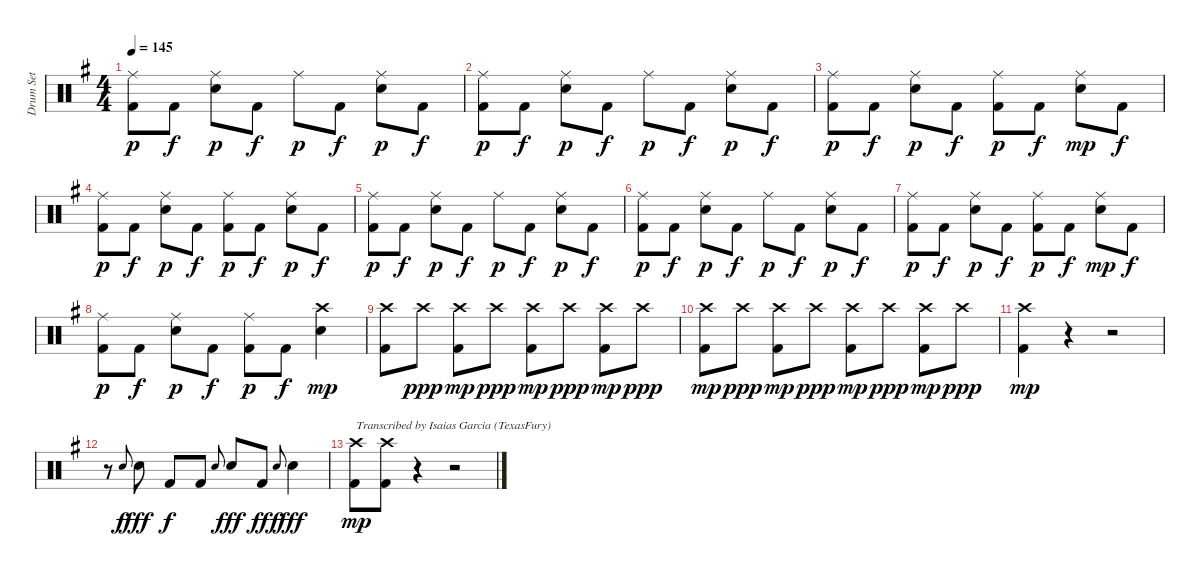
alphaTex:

\track ("Drum Set" "Drum Set") {instrument percussion}
\staff {score}
\articulation defaults
\ts (4 4)
\tempo 145
\clef neutral
\ks g
("Kick (hit) 2" "Ride (middle)").8{dy p} "Kick (hit) 2".8{dy f} ("Electric Snare (hit)" "Ride (middle)").8{dy p} "Kick (hit) 2".8{dy f} "Ride (middle)".8{dy p} "Kick (hit) 2".8{dy f} ("Electric Snare (hit)" "Ride (middle)").8{dy p} "Kick (hit) 2".8{dy f} |
("Kick (hit) 2" "Ride (middle)").8{dy p} "Kick (hit) 2".8{dy f} ("Electric Snare (hit)" "Ride (middle)").8{dy p} "Kick (hit) 2".8{dy f} "Ride (middle)".8{dy p} "Kick (hit) 2".8{dy f} ("Electric Snare (hit)" "Ride (middle)").8{dy p} "Kick (hit) 2".8{dy f} |
("Kick (hit) 2" "Ride (middle)").8{dy p} "Kick (hit) 2".8{dy f} ("Electric Snare (hit)" "Ride (middle)").8{dy p} "Kick (hit) 2".8{dy f} ("Kick (hit) 2" "Ride (middle)").8{dy p} "Kick (hit) 2".8{dy f} ("Electric Snare (hit)" "Ride (middle)").8{dy mp} "Kick (hit) 2".8{dy f} |
("Kick (hit) 2" "Ride (middle)").8{dy p} "Kick (hit) 2".8{dy f} ("Electric Snare (hit)" "Ride (middle)").8{dy p} "Kick (hit) 2".8{dy f} ("Kick (hit) 2" "Ride (middle)").8{dy p} "Kick (hit) 2".8{dy f} ("Electric Snare (hit)" "Ride (middle)").8{dy p} "Kick (hit) 2".8{dy f} |
("Kick (hit) 2" "Ride (middle)").8{dy p} "Kick (hit) 2".8{dy f} ("Electric Snare (hit)" "Ride (middle)").8{dy p} "Kick (hit) 2".8{dy f} "Ride (middle)".8{dy p} "Kick (hit) 2".8{dy f} ("Electric Snare (hit)" "Ride (middle)").8{dy p} "Kick (hit) 2".8{dy f} |
("Kick (hit) 2" "Ride (middle)").8{dy p} "Kick (hit) 2".8{dy f} ("Electric Snare (hit)" "Ride (middle)").8{dy p} "Kick (hit) 2".8{dy f} "Ride (middle)".8{dy p} "Kick (hit) 2".8{dy f} ("Electric Snare (hit)" "Ride (middle)").8{dy p} "Kick (hit) 2".8{dy f} |
("Kick (hit) 2" "Ride (middle)").8{dy p} "Kick (hit) 2".8{dy f} ("Electric Snare (hit)" "Ride (middle)").8{dy p} "Kick (hit) 2".8{dy f} ("Kick (hit) 2" "Ride (middle)").8{dy p} "Kick (hit) 2".8{dy f} ("Electric Snare (hit)" "Ride (middle)").8{dy mp} "Kick (hit) 2".8{dy f} |
("Kick (hit) 2" "Ride (middle)").8{dy p} "Kick (hit) 2".8{dy f} ("Electric Snare (hit)" "Ride (middle)").8{dy p} "Kick (hit) 2".8{dy f} ("Kick (hit) 2" "Ride (middle)").8{dy p} "Kick (hit) 2".8{dy f} ("Electric Snare (hit)" "Crash high (hit)").4{dy mp} |
("Kick (hit) 2" "Crash high (hit)").8 "Crash high (hit)".8{dy ppp} ("Kick (hit) 2" "Crash high (hit)").8{dy mp} "Crash high (hit)".8{dy ppp} ("Kick (hit) 2" "Crash high (hit)").8{dy mp} "Crash high (hit)".8{dy ppp} ("Kick (hit) 2" "Crash high (hit)").8{dy mp} "Crash high (hit)".8{dy ppp} |
("Kick (hit) 2" "Crash high (hit)").8{dy mp} "Crash high (hit)".8{dy ppp} ("Kick (hit) 2" "Crash high (hit)").8{dy mp} "Crash high (hit)".8{dy ppp} ("Kick (hit) 2" "Crash high (hit)").8{dy mp} "Crash high (hit)".8{dy ppp} ("Kick (hit) 2" "Crash high (hit)").8{dy mp} "Crash high (hit)".8{dy ppp} |
("Kick (hit) 2" "Crash high (hit)").4{dy mp} r.4 r.2 |
r.8 "Electric Snare (hit)".8{gr onbeat dy f} "Electric Snare (hit)".8{dy fff} "Kick (hit) 2".8{dy f} "Kick (hit) 2".8 "Electric Snare (hit)".8{gr onbeat} "Electric Snare (hit)".8{dy fff} "Kick (hit) 2".8{dy ff} "Electric Snare (hit)".8{gr onbeat dy f} "Electric Snare (hit)".4{dy fff} |
("Kick (hit) 2" "Crash high (hit)").8{txt "Transcribed by Isaias Garcia (TexasFury)" dy mp} ("Kick (hit) 2" "Crash high (hit)").8{volume 0} r.4 r.2
